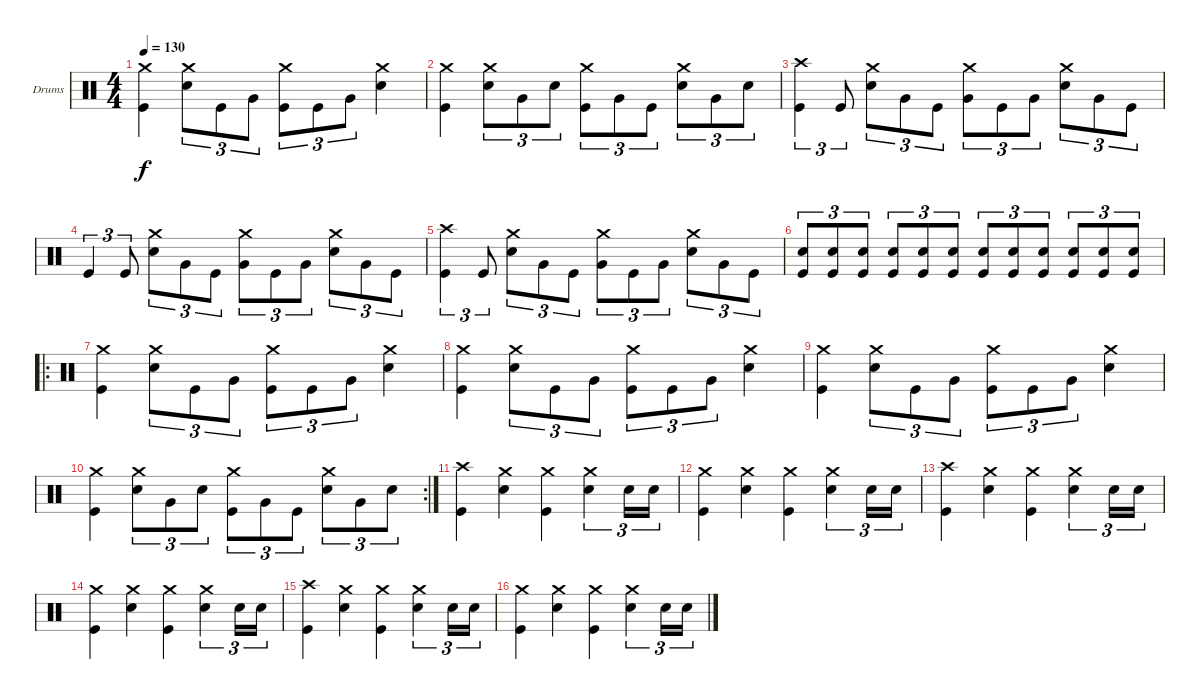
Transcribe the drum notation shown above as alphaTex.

\defaultSystemsLayout 4
\bracketExtendMode groupsimilarinstruments
\firstSystemTrackNameOrientation horizontal
\otherSystemsTrackNameOrientation horizontal
\track ("Drumkit" "Drums") {instrument percussion}
\staff {score}
\articulation defaults
\ts (4 4)
\tempo 130
\clef neutral
\ks c
("Kick (hit)" "Crash medium (hit)").4{dy f} ("Snare (hit) 2" "Crash medium (hit)").8{tu (3 2)} "Kick (hit)".8{tu (3 2)} "Very Low Tom (hit)".8{tu (3 2)} ("Kick (hit)" "Crash medium (hit)").8{tu (3 2)} "Kick (hit)".8{tu (3 2)} "Very Low Tom (hit)".8{tu (3 2)} ("Snare (hit) 2" "Crash medium (hit)").4 |
("Kick (hit)" "Crash medium (hit)").4 ("Snare (hit) 2" "Crash medium (hit)").8{tu (3 2)} "Very Low Tom (hit)".8{tu (3 2)} "Snare (hit) 2".8{tu (3 2)} ("Kick (hit)" "Crash medium (hit)").8{tu (3 2)} "Very Low Tom (hit)".8{tu (3 2)} "Kick (hit)".8{tu (3 2)} ("Snare (hit) 2" "Crash medium (hit)").8{tu (3 2)} "Very Low Tom (hit)".8{tu (3 2)} "Snare (hit) 2".8{tu (3 2)} |
("Kick (hit)" "Crash high (hit)").4{tu (3 2)} "Kick (hit)".8{tu (3 2)} ("Snare (hit) 2" "Crash medium (hit)").8{tu (3 2)} "Very Low Tom (hit)".8{tu (3 2)} "Kick (hit)".8{tu (3 2)} ("Very Low Tom (hit)" "Crash medium (hit)").8{tu (3 2)} "Kick (hit)".8{tu (3 2)} "Very Low Tom (hit)".8{tu (3 2)} ("Snare (hit) 2" "Crash medium (hit)").8{tu (3 2)} "Very Low Tom (hit)".8{tu (3 2)} "Kick (hit)".8{tu (3 2)} |
"Kick (hit)".4{tu (3 2)} "Kick (hit)".8{tu (3 2)} ("Snare (hit) 2" "Crash medium (hit)").8{tu (3 2)} "Very Low Tom (hit)".8{tu (3 2)} "Kick (hit)".8{tu (3 2)} ("Very Low Tom (hit)" "Crash medium (hit)").8{tu (3 2)} "Kick (hit)".8{tu (3 2)} "Very Low Tom (hit)".8{tu (3 2)} ("Snare (hit) 2" "Crash medium (hit)").8{tu (3 2)} "Very Low Tom (hit)".8{tu (3 2)} "Kick (hit)".8{tu (3 2)} |
("Kick (hit)" "Crash high (hit)").4{tu (3 2)} "Kick (hit)".8{tu (3 2)} ("Snare (hit) 2" "Crash medium (hit)").8{tu (3 2)} "Very Low Tom (hit)".8{tu (3 2)} "Kick (hit)".8{tu (3 2)} ("Very Low Tom (hit)" "Crash medium (hit)").8{tu (3 2)} "Kick (hit)".8{tu (3 2)} "Very Low Tom (hit)".8{tu (3 2)} ("Snare (hit) 2" "Crash medium (hit)").8{tu (3 2)} "Very Low Tom (hit)".8{tu (3 2)} "Kick (hit)".8{tu (3 2)} |
("Kick (hit)" "Snare (hit) 2").8{tu (3 2)} ("Kick (hit)" "Snare (hit) 2").8{tu (3 2)} ("Kick (hit)" "Snare (hit) 2").8{tu (3 2)} ("Kick (hit)" "Snare (hit) 2").8{tu (3 2)} ("Kick (hit)" "Snare (hit) 2").8{tu (3 2)} ("Kick (hit)" "Snare (hit) 2").8{tu (3 2)} ("Kick (hit)" "Snare (hit) 2").8{tu (3 2)} ("Kick (hit)" "Snare (hit) 2").8{tu (3 2)} ("Kick (hit)" "Snare (hit) 2").8{tu (3 2)} ("Kick (hit)" "Snare (hit) 2").8{tu (3 2)} ("Kick (hit)" "Snare (hit) 2").8{tu (3 2)} ("Kick (hit)" "Snare (hit) 2").8{tu (3 2)} |
\ro
("Kick (hit)" "Crash medium (hit)").4 ("Snare (hit) 2" "Crash medium (hit)").8{tu (3 2)} "Kick (hit)".8{tu (3 2)} "Very Low Tom (hit)".8{tu (3 2)} ("Kick (hit)" "Crash medium (hit)").8{tu (3 2)} "Kick (hit)".8{tu (3 2)} "Very Low Tom (hit)".8{tu (3 2)} ("Snare (hit) 2" "Crash medium (hit)").4 |
("Kick (hit)" "Crash medium (hit)").4 ("Snare (hit) 2" "Crash medium (hit)").8{tu (3 2)} "Kick (hit)".8{tu (3 2)} "Very Low Tom (hit)".8{tu (3 2)} ("Kick (hit)" "Crash medium (hit)").8{tu (3 2)} "Kick (hit)".8{tu (3 2)} "Very Low Tom (hit)".8{tu (3 2)} ("Snare (hit) 2" "Crash medium (hit)").4 |
("Kick (hit)" "Crash medium (hit)").4 ("Snare (hit) 2" "Crash medium (hit)").8{tu (3 2)} "Kick (hit)".8{tu (3 2)} "Very Low Tom (hit)".8{tu (3 2)} ("Kick (hit)" "Crash medium (hit)").8{tu (3 2)} "Kick (hit)".8{tu (3 2)} "Very Low Tom (hit)".8{tu (3 2)} ("Snare (hit) 2" "Crash medium (hit)").4 |
\rc 2
("Kick (hit)" "Crash medium (hit)").4 ("Snare (hit) 2" "Crash medium (hit)").8{tu (3 2)} "Very Low Tom (hit)".8{tu (3 2)} "Snare (hit) 2".8{tu (3 2)} ("Kick (hit)" "Crash medium (hit)").8{tu (3 2)} "Very Low Tom (hit)".8{tu (3 2)} "Kick (hit)".8{tu (3 2)} ("Snare (hit) 2" "Crash medium (hit)").8{tu (3 2)} "Very Low Tom (hit)".8{tu (3 2)} "Snare (hit) 2".8{tu (3 2)} |
("Kick (hit)" "Crash high (hit)").4 ("Snare (hit) 2" "Crash medium (hit)").4 ("Kick (hit)" "Crash medium (hit)").4 ("Snare (hit) 2" "Crash medium (hit)").4{tu (3 2)} "Snare (hit) 2".16{tu (3 2)} "Snare (hit) 2".16{tu (3 2)} |
("Kick (hit)" "Crash medium (hit)").4 ("Snare (hit) 2" "Crash medium (hit)").4 ("Kick (hit)" "Crash medium (hit)").4 ("Snare (hit) 2" "Crash medium (hit)").4{tu (3 2)} "Snare (hit) 2".16{tu (3 2)} "Snare (hit) 2".16{tu (3 2)} |
("Kick (hit)" "Crash high (hit)").4 ("Snare (hit) 2" "Crash medium (hit)").4 ("Kick (hit)" "Crash medium (hit)").4 ("Snare (hit) 2" "Crash medium (hit)").4{tu (3 2)} "Snare (hit) 2".16{tu (3 2)} "Snare (hit) 2".16{tu (3 2)} |
("Kick (hit)" "Crash medium (hit)").4 ("Snare (hit) 2" "Crash medium (hit)").4 ("Kick (hit)" "Crash medium (hit)").4 ("Snare (hit) 2" "Crash medium (hit)").4{tu (3 2)} "Snare (hit) 2".16{tu (3 2)} "Snare (hit) 2".16{tu (3 2)} |
("Kick (hit)" "Crash high (hit)").4 ("Snare (hit) 2" "Crash medium (hit)").4 ("Kick (hit)" "Crash medium (hit)").4 ("Snare (hit) 2" "Crash medium (hit)").4{tu (3 2)} "Snare (hit) 2".16{tu (3 2)} "Snare (hit) 2".16{tu (3 2)} |
("Kick (hit)" "Crash medium (hit)").4 ("Snare (hit) 2" "Crash medium (hit)").4 ("Kick (hit)" "Crash medium (hit)").4 ("Snare (hit) 2" "Crash medium (hit)").4{tu (3 2)} "Snare (hit) 2".16{tu (3 2)} "Snare (hit) 2".16{tu (3 2)}
